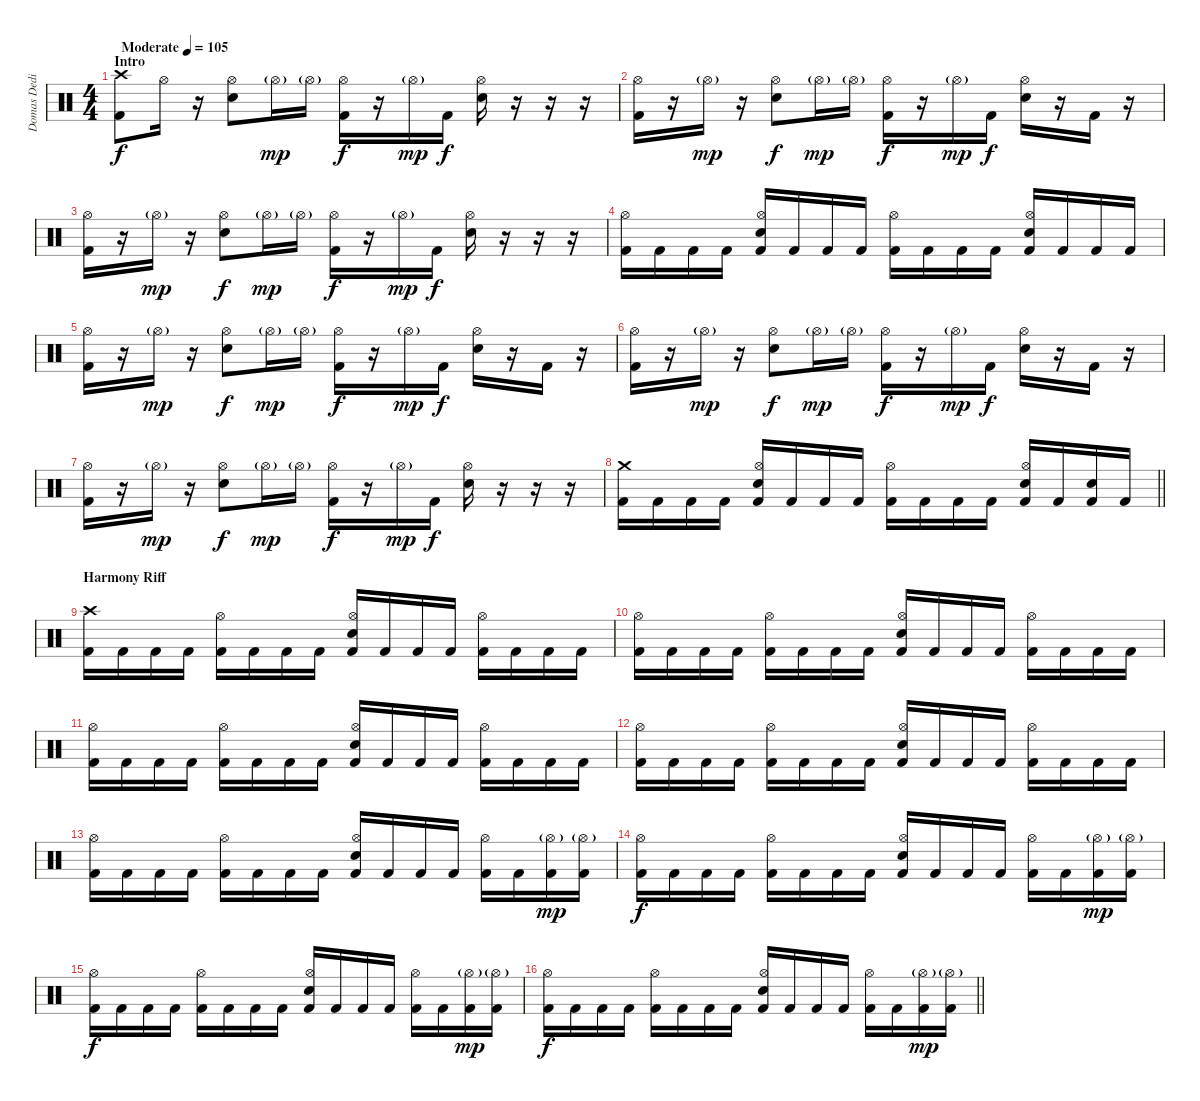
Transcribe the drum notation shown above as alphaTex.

\track ("Domas Dedinas" "Domas Dedi") {instrument percussion}
\staff {score}
\articulation defaults
\ts (4 4)
\section ("" "Intro")
\tempo (105 "Moderate")
\clef neutral
\ks c
("Crash high (hit)" "Kick (hit) 2").8{dy f} "Hi-Hat (open)".16 r.16 ("Hi-Hat (open)" "Snare (hit) 2").8 "Hi-Hat (open)"{g}.16{dy mp} "Hi-Hat (open)"{g}.16 ("Hi-Hat (open)" "Kick (hit) 2").16{dy f} r.16 "Hi-Hat (open)"{g}.16{dy mp} "Kick (hit) 2".16{dy f} ("Hi-Hat (open)" "Snare (hit) 2").16 r.16 r.16 r.16 |
("Hi-Hat (open)" "Kick (hit) 2").16 r.16 "Hi-Hat (open)"{g}.16{dy mp} r.16 ("Hi-Hat (open)" "Snare (hit) 2").8{dy f} "Hi-Hat (open)"{g}.16{dy mp} "Hi-Hat (open)"{g}.16 ("Hi-Hat (open)" "Kick (hit) 2").16{dy f} r.16 "Hi-Hat (open)"{g}.16{dy mp} "Kick (hit) 2".16{dy f} ("Hi-Hat (open)" "Snare (hit) 2").16 r.16 "Kick (hit) 2".16 r.16 |
("Hi-Hat (open)" "Kick (hit) 2").16 r.16 "Hi-Hat (open)"{g}.16{dy mp} r.16 ("Hi-Hat (open)" "Snare (hit) 2").8{dy f} "Hi-Hat (open)"{g}.16{dy mp} "Hi-Hat (open)"{g}.16 ("Hi-Hat (open)" "Kick (hit) 2").16{dy f} r.16 "Hi-Hat (open)"{g}.16{dy mp} "Kick (hit) 2".16{dy f} ("Hi-Hat (open)" "Snare (hit) 2").16 r.16 r.16 r.16 |
("Hi-Hat (open)" "Kick (hit) 2").16 "Kick (hit) 2".16 "Kick (hit) 2".16 "Kick (hit) 2".16 ("Hi-Hat (open)" "Snare (hit) 2" "Kick (hit) 2").16 "Kick (hit) 2".16 "Kick (hit) 2".16 "Kick (hit) 2".16 ("Hi-Hat (open)" "Kick (hit) 2").16 "Kick (hit) 2".16 "Kick (hit) 2".16 "Kick (hit) 2".16 ("Hi-Hat (open)" "Snare (hit) 2" "Kick (hit) 2").16 "Kick (hit) 2".16 "Kick (hit) 2".16 "Kick (hit) 2".16 |
("Hi-Hat (open)" "Kick (hit) 2").16 r.16 "Hi-Hat (open)"{g}.16{dy mp} r.16 ("Hi-Hat (open)" "Snare (hit) 2").8{dy f} "Hi-Hat (open)"{g}.16{dy mp} "Hi-Hat (open)"{g}.16 ("Hi-Hat (open)" "Kick (hit) 2").16{dy f} r.16 "Hi-Hat (open)"{g}.16{dy mp} "Kick (hit) 2".16{dy f} ("Hi-Hat (open)" "Snare (hit) 2").16 r.16 "Kick (hit) 2".16 r.16 |
("Hi-Hat (open)" "Kick (hit) 2").16 r.16 "Hi-Hat (open)"{g}.16{dy mp} r.16 ("Hi-Hat (open)" "Snare (hit) 2").8{dy f} "Hi-Hat (open)"{g}.16{dy mp} "Hi-Hat (open)"{g}.16 ("Hi-Hat (open)" "Kick (hit) 2").16{dy f} r.16 "Hi-Hat (open)"{g}.16{dy mp} "Kick (hit) 2".16{dy f} ("Hi-Hat (open)" "Snare (hit) 2").16 r.16 "Kick (hit) 2".16 r.16 |
("Hi-Hat (open)" "Kick (hit) 2").16 r.16 "Hi-Hat (open)"{g}.16{dy mp} r.16 ("Hi-Hat (open)" "Snare (hit) 2").8{dy f} "Hi-Hat (open)"{g}.16{dy mp} "Hi-Hat (open)"{g}.16 ("Hi-Hat (open)" "Kick (hit) 2").16{dy f} r.16 "Hi-Hat (open)"{g}.16{dy mp} "Kick (hit) 2".16{dy f} ("Hi-Hat (open)" "Snare (hit) 2").16 r.16 r.16 r.16 |
\barLineRight lightlight
("Crash medium (hit)" "Kick (hit) 2").16 "Kick (hit) 2".16 "Kick (hit) 2".16 "Kick (hit) 2".16 ("Hi-Hat (open)" "Snare (hit) 2" "Kick (hit) 2").16 "Kick (hit) 2".16 "Kick (hit) 2".16 "Kick (hit) 2".16 ("Hi-Hat (open)" "Kick (hit) 2").16 "Kick (hit) 2".16 "Kick (hit) 2".16 "Kick (hit) 2".16 ("Hi-Hat (open)" "Snare (hit) 2" "Kick (hit) 2").16 "Kick (hit) 2".16 ("Snare (hit) 2" "Kick (hit) 2").16 "Kick (hit) 2".16 |
\section ("" "Harmony Riff")
("Crash high (hit)" "Kick (hit) 2").16 "Kick (hit) 2".16 "Kick (hit) 2".16 "Kick (hit) 2".16 ("Hi-Hat (open)" "Kick (hit) 2").16 "Kick (hit) 2".16 "Kick (hit) 2".16 "Kick (hit) 2".16 ("Hi-Hat (open)" "Snare (hit) 2" "Kick (hit) 2").16 "Kick (hit) 2".16 "Kick (hit) 2".16 "Kick (hit) 2".16 ("Hi-Hat (open)" "Kick (hit) 2").16 "Kick (hit) 2".16 "Kick (hit) 2".16 "Kick (hit) 2".16 |
("Hi-Hat (open)" "Kick (hit) 2").16 "Kick (hit) 2".16 "Kick (hit) 2".16 "Kick (hit) 2".16 ("Hi-Hat (open)" "Kick (hit) 2").16 "Kick (hit) 2".16 "Kick (hit) 2".16 "Kick (hit) 2".16 ("Hi-Hat (open)" "Snare (hit) 2" "Kick (hit) 2").16 "Kick (hit) 2".16 "Kick (hit) 2".16 "Kick (hit) 2".16 ("Hi-Hat (open)" "Kick (hit) 2").16 "Kick (hit) 2".16 "Kick (hit) 2".16 "Kick (hit) 2".16 |
("Hi-Hat (open)" "Kick (hit) 2").16 "Kick (hit) 2".16 "Kick (hit) 2".16 "Kick (hit) 2".16 ("Hi-Hat (open)" "Kick (hit) 2").16 "Kick (hit) 2".16 "Kick (hit) 2".16 "Kick (hit) 2".16 ("Hi-Hat (open)" "Snare (hit) 2" "Kick (hit) 2").16 "Kick (hit) 2".16 "Kick (hit) 2".16 "Kick (hit) 2".16 ("Hi-Hat (open)" "Kick (hit) 2").16 "Kick (hit) 2".16 "Kick (hit) 2".16 "Kick (hit) 2".16 |
("Hi-Hat (open)" "Kick (hit) 2").16 "Kick (hit) 2".16 "Kick (hit) 2".16 "Kick (hit) 2".16 ("Hi-Hat (open)" "Kick (hit) 2").16 "Kick (hit) 2".16 "Kick (hit) 2".16 "Kick (hit) 2".16 ("Hi-Hat (open)" "Snare (hit) 2" "Kick (hit) 2").16 "Kick (hit) 2".16 "Kick (hit) 2".16 "Kick (hit) 2".16 ("Hi-Hat (open)" "Kick (hit) 2").16 "Kick (hit) 2".16 "Kick (hit) 2".16 "Kick (hit) 2".16 |
("Hi-Hat (open)" "Kick (hit) 2").16 "Kick (hit) 2".16 "Kick (hit) 2".16 "Kick (hit) 2".16 ("Hi-Hat (open)" "Kick (hit) 2").16 "Kick (hit) 2".16 "Kick (hit) 2".16 "Kick (hit) 2".16 ("Hi-Hat (open)" "Snare (hit) 2" "Kick (hit) 2").16 "Kick (hit) 2".16 "Kick (hit) 2".16 "Kick (hit) 2".16 ("Hi-Hat (open)" "Kick (hit) 2").16 "Kick (hit) 2".16 ("Hi-Hat (open)"{g} "Kick (hit) 2").16{dy mp} ("Hi-Hat (open)"{g} "Kick (hit) 2").16 |
("Hi-Hat (open)" "Kick (hit) 2").16{dy f} "Kick (hit) 2".16 "Kick (hit) 2".16 "Kick (hit) 2".16 ("Hi-Hat (open)" "Kick (hit) 2").16 "Kick (hit) 2".16 "Kick (hit) 2".16 "Kick (hit) 2".16 ("Hi-Hat (open)" "Snare (hit) 2" "Kick (hit) 2").16 "Kick (hit) 2".16 "Kick (hit) 2".16 "Kick (hit) 2".16 ("Hi-Hat (open)" "Kick (hit) 2").16 "Kick (hit) 2".16 ("Hi-Hat (open)"{g} "Kick (hit) 2").16{dy mp} ("Hi-Hat (open)"{g} "Kick (hit) 2").16 |
("Hi-Hat (open)" "Kick (hit) 2").16{dy f} "Kick (hit) 2".16 "Kick (hit) 2".16 "Kick (hit) 2".16 ("Hi-Hat (open)" "Kick (hit) 2").16 "Kick (hit) 2".16 "Kick (hit) 2".16 "Kick (hit) 2".16 ("Hi-Hat (open)" "Snare (hit) 2" "Kick (hit) 2").16 "Kick (hit) 2".16 "Kick (hit) 2".16 "Kick (hit) 2".16 ("Hi-Hat (open)" "Kick (hit) 2").16 "Kick (hit) 2".16 ("Hi-Hat (open)"{g} "Kick (hit) 2").16{dy mp} ("Hi-Hat (open)"{g} "Kick (hit) 2").16 |
\barLineRight lightlight
("Hi-Hat (open)" "Kick (hit) 2").16{dy f} "Kick (hit) 2".16 "Kick (hit) 2".16 "Kick (hit) 2".16 ("Hi-Hat (open)" "Kick (hit) 2").16 "Kick (hit) 2".16 "Kick (hit) 2".16 "Kick (hit) 2".16 ("Hi-Hat (open)" "Snare (hit) 2" "Kick (hit) 2").16 "Kick (hit) 2".16 "Kick (hit) 2".16 "Kick (hit) 2".16 ("Hi-Hat (open)" "Kick (hit) 2").16 "Kick (hit) 2".16 ("Hi-Hat (open)"{g} "Kick (hit) 2").16{dy mp} ("Hi-Hat (open)"{g} "Kick (hit) 2").16
